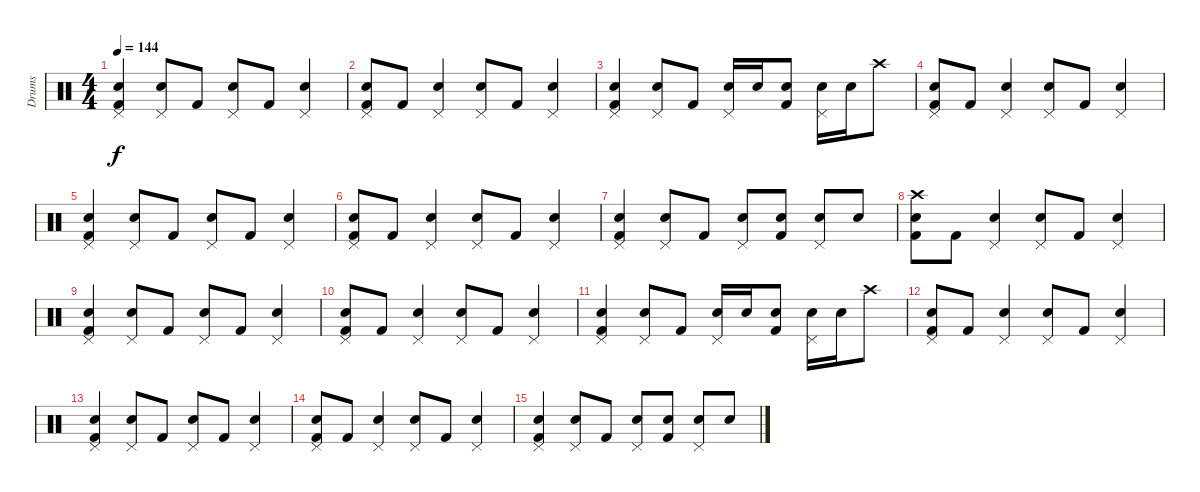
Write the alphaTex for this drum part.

\track ("Drums" "Drums") {instrument percussion}
\staff {score}
\articulation defaults
\ts (4 4)
\tempo 144
\clef neutral
\ks c
("Electric Snare (hit)" "Kick (hit) 2" "Pedal Hi-Hat (hit)").4{dy f volume 15} ("Electric Snare (hit)" "Pedal Hi-Hat (hit)").8{volume 15} "Kick (hit) 2".8 ("Electric Snare (hit)" "Pedal Hi-Hat (hit)").8 "Kick (hit) 2".8{volume 14} ("Electric Snare (hit)" "Pedal Hi-Hat (hit)").4{volume 14} |
("Electric Snare (hit)" "Pedal Hi-Hat (hit)" "Kick (hit) 2").8{volume 14} "Kick (hit) 2".8{volume 14} ("Pedal Hi-Hat (hit)" "Electric Snare (hit)").4{volume 14} ("Electric Snare (hit)" "Pedal Hi-Hat (hit)").8{volume 14} "Kick (hit) 2".8 ("Pedal Hi-Hat (hit)" "Electric Snare (hit)").4{volume 14} |
("Electric Snare (hit)" "Kick (hit) 2" "Pedal Hi-Hat (hit)").4 ("Electric Snare (hit)" "Pedal Hi-Hat (hit)").8 "Kick (hit) 2".8 ("Electric Snare (hit)" "Pedal Hi-Hat (hit)").16 "Electric Snare (hit)".16{volume 14} ("Electric Snare (hit)" "Kick (hit) 2").8 ("Electric Snare (hit)" "Pedal Hi-Hat (hit)").16 "Electric Snare (hit)".16 "Crash high (hit)".8{volume 13} |
("Electric Snare (hit)" "Pedal Hi-Hat (hit)" "Kick (hit) 2").8{volume 13} "Kick (hit) 2".8{volume 13} ("Pedal Hi-Hat (hit)" "Electric Snare (hit)").4{volume 13} ("Electric Snare (hit)" "Pedal Hi-Hat (hit)").8{volume 13} "Kick (hit) 2".8{volume 12} ("Pedal Hi-Hat (hit)" "Electric Snare (hit)").4 |
("Electric Snare (hit)" "Kick (hit) 2" "Pedal Hi-Hat (hit)").4{volume 12} ("Electric Snare (hit)" "Pedal Hi-Hat (hit)").8{volume 12} "Kick (hit) 2".8{volume 12} ("Electric Snare (hit)" "Pedal Hi-Hat (hit)").8 "Kick (hit) 2".8 ("Electric Snare (hit)" "Pedal Hi-Hat (hit)").4{volume 12} |
("Electric Snare (hit)" "Pedal Hi-Hat (hit)" "Kick (hit) 2").8{volume 12} "Kick (hit) 2".8 ("Pedal Hi-Hat (hit)" "Electric Snare (hit)").4{volume 12} ("Electric Snare (hit)" "Pedal Hi-Hat (hit)").8{volume 11} "Kick (hit) 2".8{volume 11} ("Pedal Hi-Hat (hit)" "Electric Snare (hit)").4{volume 11} |
("Electric Snare (hit)" "Kick (hit) 2" "Pedal Hi-Hat (hit)").4{volume 11} ("Electric Snare (hit)" "Pedal Hi-Hat (hit)").8{volume 11} "Kick (hit) 2".8 ("Electric Snare (hit)" "Pedal Hi-Hat (hit)").8 ("Electric Snare (hit)" "Kick (hit) 2").8 ("Electric Snare (hit)" "Pedal Hi-Hat (hit)").8 "Electric Snare (hit)".8{volume 10} |
("Electric Snare (hit)" "Crash high (hit)" "Kick (hit) 2").8{volume 10} "Kick (hit) 2".8 ("Pedal Hi-Hat (hit)" "Electric Snare (hit)").4 ("Electric Snare (hit)" "Pedal Hi-Hat (hit)").8 "Kick (hit) 2".8 ("Pedal Hi-Hat (hit)" "Electric Snare (hit)").4{volume 10} |
("Electric Snare (hit)" "Kick (hit) 2" "Pedal Hi-Hat (hit)").4{volume 10} ("Electric Snare (hit)" "Pedal Hi-Hat (hit)").8 "Kick (hit) 2".8{volume 9} ("Electric Snare (hit)" "Pedal Hi-Hat (hit)").8{volume 9} "Kick (hit) 2".8 ("Electric Snare (hit)" "Pedal Hi-Hat (hit)").4 |
("Electric Snare (hit)" "Pedal Hi-Hat (hit)" "Kick (hit) 2").8 "Kick (hit) 2".8 ("Pedal Hi-Hat (hit)" "Electric Snare (hit)").4{volume 9} ("Electric Snare (hit)" "Pedal Hi-Hat (hit)").8{volume 9} "Kick (hit) 2".8 ("Pedal Hi-Hat (hit)" "Electric Snare (hit)").4{volume 9} |
("Electric Snare (hit)" "Kick (hit) 2" "Pedal Hi-Hat (hit)").4{volume 8} ("Electric Snare (hit)" "Pedal Hi-Hat (hit)").8{volume 8} "Kick (hit) 2".8 ("Electric Snare (hit)" "Pedal Hi-Hat (hit)").16 "Electric Snare (hit)".16 ("Electric Snare (hit)" "Kick (hit) 2").8 ("Electric Snare (hit)" "Pedal Hi-Hat (hit)").16{volume 8} "Electric Snare (hit)".16 "Crash high (hit)".8 |
("Electric Snare (hit)" "Pedal Hi-Hat (hit)" "Kick (hit) 2").8 "Kick (hit) 2".8 ("Pedal Hi-Hat (hit)" "Electric Snare (hit)").4{volume 8} ("Electric Snare (hit)" "Pedal Hi-Hat (hit)").8{volume 8} "Kick (hit) 2".8 ("Pedal Hi-Hat (hit)" "Electric Snare (hit)").4 |
("Electric Snare (hit)" "Kick (hit) 2" "Pedal Hi-Hat (hit)").4{volume 8} ("Electric Snare (hit)" "Pedal Hi-Hat (hit)").8{volume 7} "Kick (hit) 2".8{volume 7} ("Electric Snare (hit)" "Pedal Hi-Hat (hit)").8{volume 7} "Kick (hit) 2".8{volume 6} ("Electric Snare (hit)" "Pedal Hi-Hat (hit)").4{volume 6} |
("Electric Snare (hit)" "Pedal Hi-Hat (hit)" "Kick (hit) 2").8{volume 6} "Kick (hit) 2".8{volume 5} ("Pedal Hi-Hat (hit)" "Electric Snare (hit)").4{volume 5} ("Electric Snare (hit)" "Pedal Hi-Hat (hit)").8{volume 4} "Kick (hit) 2".8{volume 3} ("Pedal Hi-Hat (hit)" "Electric Snare (hit)").4{volume 3} |
("Electric Snare (hit)" "Kick (hit) 2" "Pedal Hi-Hat (hit)").4{volume 1} ("Electric Snare (hit)" "Pedal Hi-Hat (hit)").8{volume 1} "Kick (hit) 2".8{volume 0} ("Electric Snare (hit)" "Pedal Hi-Hat (hit)").8 ("Electric Snare (hit)" "Kick (hit) 2").8 ("Electric Snare (hit)" "Pedal Hi-Hat (hit)").8 "Electric Snare (hit)".8
